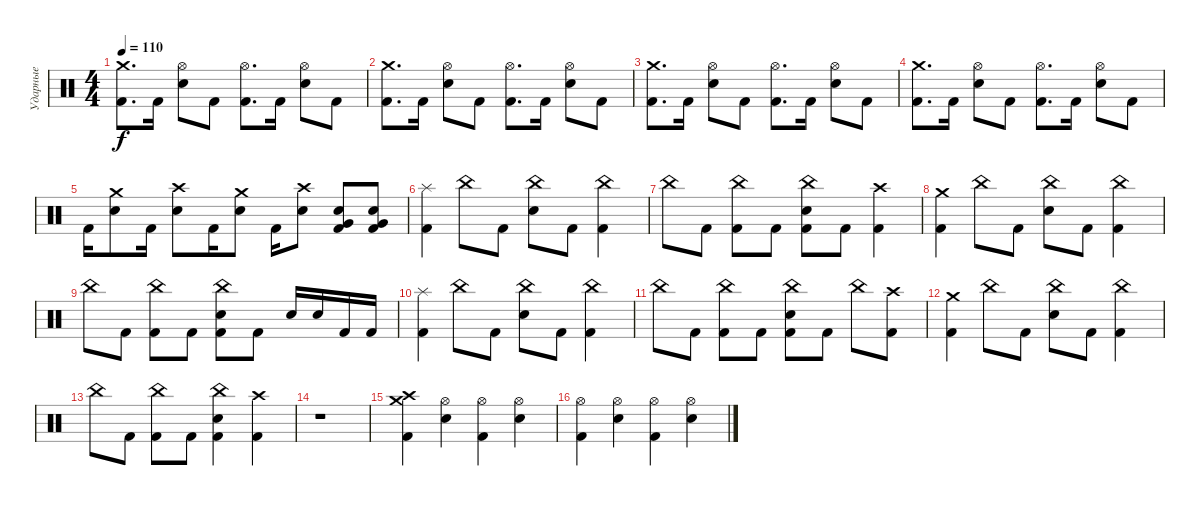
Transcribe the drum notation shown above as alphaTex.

\track ("Ударные" "Ударные") {instrument percussion}
\staff {score}
\articulation defaults
\ts (4 4)
\tempo 110
\clef neutral
\ks c
("Crash medium (hit)" "Kick (hit) 2").8{d dy f} "Kick (hit) 2".16 ("Hi-Hat (open)" "Electric Snare (hit)").8 "Kick (hit) 2".8 ("Hi-Hat (open)" "Kick (hit) 2").8{d} "Kick (hit) 2".16 ("Hi-Hat (open)" "Electric Snare (hit)").8 "Kick (hit) 2".8 |
("Crash medium (hit)" "Kick (hit) 2").8{d} "Kick (hit) 2".16 ("Hi-Hat (open)" "Electric Snare (hit)").8 "Kick (hit) 2".8 ("Hi-Hat (open)" "Kick (hit) 2").8{d} "Kick (hit) 2".16 ("Hi-Hat (open)" "Electric Snare (hit)").8 "Kick (hit) 2".8 |
("Crash medium (hit)" "Kick (hit) 2").8{d} "Kick (hit) 2".16 ("Hi-Hat (open)" "Electric Snare (hit)").8 "Kick (hit) 2".8 ("Hi-Hat (open)" "Kick (hit) 2").8{d} "Kick (hit) 2".16 ("Hi-Hat (open)" "Electric Snare (hit)").8 "Kick (hit) 2".8 |
("Crash medium (hit)" "Kick (hit) 2").8{d} "Kick (hit) 2".16 ("Hi-Hat (open)" "Electric Snare (hit)").8 "Kick (hit) 2".8 ("Hi-Hat (open)" "Kick (hit) 2").8{d} "Kick (hit) 2".16 ("Hi-Hat (open)" "Electric Snare (hit)").8 "Kick (hit) 2".8 |
"Kick (hit) 2".16 ("Crash medium (hit)" "Electric Snare (hit)").8 "Kick (hit) 2".16 ("Crash high (hit)" "Electric Snare (hit)").8 "Kick (hit) 2".16 ("Crash medium (hit)" "Electric Snare (hit)").8 "Kick (hit) 2".16 ("Crash high (hit)" "Electric Snare (hit)").8 ("Electric Snare (hit)" "Very Low Tom (hit)" "Kick (hit) 2").8 ("Electric Snare (hit)" "Very Low Tom (hit)" "Kick (hit) 2").8 |
("Splash (hit)" "Kick (hit) 2").4 "China (hit)".8 "Kick (hit) 2".8 ("China (hit)" "Electric Snare (hit)").8 "Kick (hit) 2".8 ("China (hit)" "Kick (hit) 2").4 |
"China (hit)".8 "Kick (hit) 2".8 ("China (hit)" "Kick (hit) 2").8 "Kick (hit) 2".8 ("China (hit)" "Electric Snare (hit)" "Kick (hit) 2").8 "Kick (hit) 2".8 ("Crash high (hit)" "Kick (hit) 2").4 |
("Crash medium (hit)" "Kick (hit) 2").4 "China (hit)".8 "Kick (hit) 2".8 ("China (hit)" "Electric Snare (hit)").8 "Kick (hit) 2".8 ("China (hit)" "Kick (hit) 2").4 |
"China (hit)".8 "Kick (hit) 2".8 ("China (hit)" "Kick (hit) 2").8 "Kick (hit) 2".8 ("China (hit)" "Electric Snare (hit)" "Kick (hit) 2").8 "Kick (hit) 2".8 "Electric Snare (hit)".16 "Electric Snare (hit)".16 "Kick (hit) 2".16 "Kick (hit) 2".16 |
("Splash (hit)" "Kick (hit) 2").4 "China (hit)".8 "Kick (hit) 2".8 ("China (hit)" "Electric Snare (hit)").8 "Kick (hit) 2".8 ("China (hit)" "Kick (hit) 2").4 |
"China (hit)".8 "Kick (hit) 2".8 ("China (hit)" "Kick (hit) 2").8 "Kick (hit) 2".8 ("China (hit)" "Electric Snare (hit)" "Kick (hit) 2").8 "Kick (hit) 2".8 "China (hit)".8 ("Crash high (hit)" "Kick (hit) 2").8 |
("Crash medium (hit)" "Kick (hit) 2").4 "China (hit)".8 "Kick (hit) 2".8 ("China (hit)" "Electric Snare (hit)").8 "Kick (hit) 2".8 ("China (hit)" "Kick (hit) 2").4 |
"China (hit)".8 "Kick (hit) 2".8 ("China (hit)" "Kick (hit) 2").8 "Kick (hit) 2".8 ("China (hit)" "Electric Snare (hit)" "Kick (hit) 2").4 ("Crash high (hit)" "Kick (hit) 2").4 |
r.1 |
("Crash medium (hit)" "Crash high (hit)" "Kick (hit) 2").4 ("Hi-Hat (open)" "Electric Snare (hit)").4 ("Hi-Hat (open)" "Kick (hit) 2").4 ("Hi-Hat (open)" "Electric Snare (hit)").4 |
("Hi-Hat (open)" "Kick (hit) 2").4 ("Hi-Hat (open)" "Electric Snare (hit)").4 ("Hi-Hat (open)" "Kick (hit) 2").4 ("Hi-Hat (open)" "Electric Snare (hit)").4
